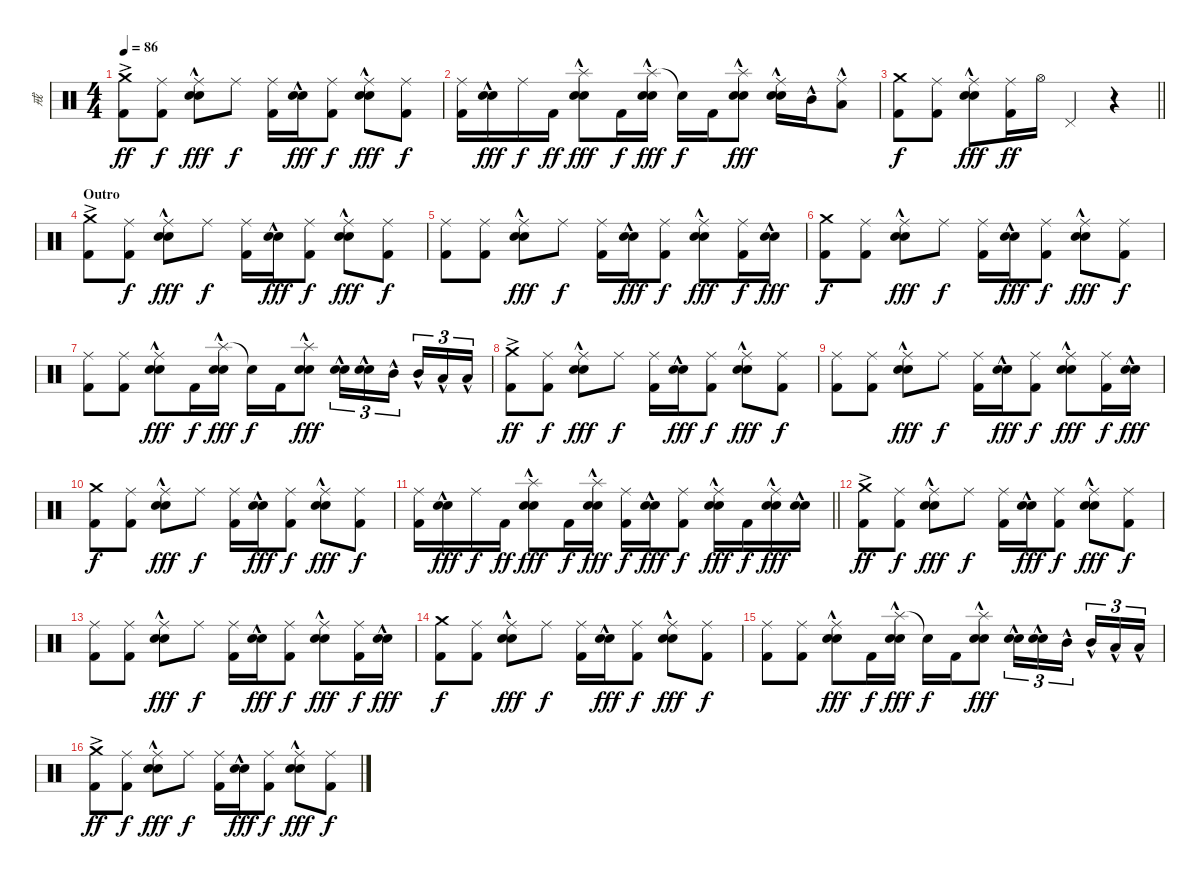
\track ("戒" "戒") {instrument percussion}
\staff {score}
\articulation defaults
\ts (4 4)
\tempo 86
\clef neutral
\ks c
("Crash medium (hit)"{ac} "Kick (hit) 2").8{dy ff} ("Ride (middle)" "Kick (hit) 2").8{dy f} ("Ride (middle)" "Electric Snare (hit)"{hac} "Snare (hit) 2"{hac}).8{dy fff} "Ride (middle)".8{dy f} ("Ride (middle)" "Kick (hit) 2").16 ("Electric Snare (hit)"{hac} "Snare (hit) 2"{hac}).16{dy fff} ("Ride (middle)" "Kick (hit) 2").8{dy f} ("Ride (middle)" "Electric Snare (hit)"{hac} "Snare (hit) 2"{hac}).8{dy fff} ("Ride (middle)" "Kick (hit) 2").8{dy f} |
("Ride (middle)" "Kick (hit) 2").16 ("Electric Snare (hit)"{hac} "Snare (hit) 2"{hac}).16{dy fff} "Ride (middle)".16{dy f} "Kick (hit) 2".16{dy ff} ("Splash (hit)"{hac} "Electric Snare (hit)"{hac} "Snare (hit) 2"{hac}).8{dy fff} "Kick (hit) 2".16{dy f} ("Splash (hit)"{hac} "Electric Snare (hit)"{hac} "Snare (hit) 2"{hac}).16{dy fff} "Snare (hit)"{t}.16{dy f} "Kick (hit) 2".16 ("Splash (hit)"{hac} "Electric Snare (hit)"{hac} "Snare (hit) 2"{hac}).8{dy fff} ("Ride (middle)" "Electric Snare (hit)"{hac} "Snare (hit) 2"{hac}).16 "Mid Tom (hit)"{hac}.16 ("Ride (middle)" "Low Tom (hit)"{hac}).8 |
\barLineRight lightlight
("Crash medium (hit)" "Kick (hit) 2").8{dy f} ("Ride (middle)" "Kick (hit) 2").8 ("Ride (middle)" "Electric Snare (hit)"{hac} "Snare (hit) 2"{hac}).8{dy fff} ("Ride (middle)" "Kick (hit) 2").16{dy ff} "Hi-Hat (open)".16 "Pedal Hi-Hat (hit)".4 r.4 |
\section ("" "Outro")
("Crash medium (hit)"{ac} "Kick (hit) 2").8 ("Ride (middle)" "Kick (hit) 2").8{dy f} ("Ride (middle)" "Electric Snare (hit)"{hac} "Snare (hit) 2"{hac}).8{dy fff} "Ride (middle)".8{dy f} ("Ride (middle)" "Kick (hit) 2").16 ("Electric Snare (hit)"{hac} "Snare (hit) 2"{hac}).16{dy fff} ("Ride (middle)" "Kick (hit) 2").8{dy f} ("Ride (middle)" "Electric Snare (hit)"{hac} "Snare (hit) 2"{hac}).8{dy fff} ("Ride (middle)" "Kick (hit) 2").8{dy f} |
("Ride (middle)" "Kick (hit) 2").8 ("Ride (middle)" "Kick (hit) 2").8 ("Ride (middle)" "Electric Snare (hit)"{hac} "Snare (hit) 2"{hac}).8{dy fff} "Ride (middle)".8{dy f} ("Ride (middle)" "Kick (hit) 2").16 ("Electric Snare (hit)"{hac} "Snare (hit) 2"{hac}).16{dy fff} ("Ride (middle)" "Kick (hit) 2").8{dy f} ("Ride (middle)" "Electric Snare (hit)"{hac} "Snare (hit) 2"{hac}).8{dy fff} ("Ride (middle)" "Kick (hit) 2").16{dy f} ("Electric Snare (hit)"{hac} "Snare (hit) 2"{hac}).16{dy fff} |
("Crash medium (hit)" "Kick (hit) 2").8{dy f} ("Ride (middle)" "Kick (hit) 2").8 ("Ride (middle)" "Electric Snare (hit)"{hac} "Snare (hit) 2"{hac}).8{dy fff} "Ride (middle)".8{dy f} ("Ride (middle)" "Kick (hit) 2").16 ("Electric Snare (hit)"{hac} "Snare (hit) 2"{hac}).16{dy fff} ("Ride (middle)" "Kick (hit) 2").8{dy f} ("Ride (middle)" "Electric Snare (hit)"{hac} "Snare (hit) 2"{hac}).8{dy fff} ("Ride (middle)" "Kick (hit) 2").8{dy f} |
("Ride (middle)" "Kick (hit) 2").8 ("Ride (middle)" "Kick (hit) 2").8 ("Ride (middle)" "Electric Snare (hit)"{hac} "Snare (hit) 2"{hac}).8{dy fff} "Kick (hit) 2".16{dy f} ("Splash (hit)"{hac} "Electric Snare (hit)"{hac} "Snare (hit) 2"{hac}).16{dy fff} "Snare (hit)"{t}.16{dy f} "Kick (hit) 2".16 ("Splash (hit)"{hac} "Electric Snare (hit)"{hac} "Snare (hit) 2"{hac}).8{dy fff} ("Electric Snare (hit)"{hac} "Snare (hit) 2").16{tu (3 2)} ("Electric Snare (hit)"{hac} "Snare (hit) 2").16{tu (3 2)} "Mid Tom (hit)"{hac}.16{tu (3 2) beam splitsecondary} "Mid Tom (hit)"{hac}.16{tu (3 2)} "Low Tom (hit)"{hac}.16{tu (3 2)} "Low Tom (hit)"{hac}.16{tu (3 2)} |
("Crash medium (hit)"{ac} "Kick (hit) 2").8{dy ff} ("Ride (middle)" "Kick (hit) 2").8{dy f} ("Ride (middle)" "Electric Snare (hit)"{hac} "Snare (hit) 2"{hac}).8{dy fff} "Ride (middle)".8{dy f} ("Ride (middle)" "Kick (hit) 2").16 ("Electric Snare (hit)"{hac} "Snare (hit) 2"{hac}).16{dy fff} ("Ride (middle)" "Kick (hit) 2").8{dy f} ("Ride (middle)" "Electric Snare (hit)"{hac} "Snare (hit) 2"{hac}).8{dy fff} ("Ride (middle)" "Kick (hit) 2").8{dy f} |
("Ride (middle)" "Kick (hit) 2").8 ("Ride (middle)" "Kick (hit) 2").8 ("Ride (middle)" "Electric Snare (hit)"{hac} "Snare (hit) 2"{hac}).8{dy fff} "Ride (middle)".8{dy f} ("Ride (middle)" "Kick (hit) 2").16 ("Electric Snare (hit)"{hac} "Snare (hit) 2"{hac}).16{dy fff} ("Ride (middle)" "Kick (hit) 2").8{dy f} ("Ride (middle)" "Electric Snare (hit)"{hac} "Snare (hit) 2"{hac}).8{dy fff} ("Ride (middle)" "Kick (hit) 2").16{dy f} ("Electric Snare (hit)"{hac} "Snare (hit) 2"{hac}).16{dy fff} |
("Crash medium (hit)" "Kick (hit) 2").8{dy f} ("Ride (middle)" "Kick (hit) 2").8 ("Ride (middle)" "Electric Snare (hit)"{hac} "Snare (hit) 2"{hac}).8{dy fff} "Ride (middle)".8{dy f} ("Ride (middle)" "Kick (hit) 2").16 ("Electric Snare (hit)"{hac} "Snare (hit) 2"{hac}).16{dy fff} ("Ride (middle)" "Kick (hit) 2").8{dy f} ("Ride (middle)" "Electric Snare (hit)"{hac} "Snare (hit) 2"{hac}).8{dy fff} ("Ride (middle)" "Kick (hit) 2").8{dy f} |
\barLineRight lightlight
("Ride (middle)" "Kick (hit) 2").16 ("Electric Snare (hit)"{hac} "Snare (hit) 2"{hac}).16{dy fff} "Ride (middle)".16{dy f} "Kick (hit) 2".16{dy ff} ("Splash (hit)"{hac} "Electric Snare (hit)"{hac} "Snare (hit) 2"{hac}).8{dy fff} "Kick (hit) 2".16{dy f} ("Splash (hit)"{hac} "Electric Snare (hit)"{hac} "Snare (hit) 2"{hac}).16{dy fff} ("Ride (middle)" "Kick (hit) 2").16{dy f} ("Electric Snare (hit)"{hac} "Snare (hit) 2"{hac}).16{dy fff} ("Ride (middle)" "Kick (hit) 2").8{dy f} ("Ride (middle)" "Electric Snare (hit)"{hac} "Snare (hit) 2"{hac}).16{dy fff} "Kick (hit) 2".16{dy f} ("Ride (middle)" "Electric Snare (hit)"{hac} "Snare (hit) 2"{hac}).16{dy fff} ("Electric Snare (hit)"{hac} "Snare (hit) 2"{hac}).16 |
\section ("" "")
("Crash medium (hit)"{ac} "Kick (hit) 2").8{dy ff} ("Ride (middle)" "Kick (hit) 2").8{dy f} ("Ride (middle)" "Electric Snare (hit)"{hac} "Snare (hit) 2"{hac}).8{dy fff} "Ride (middle)".8{dy f} ("Ride (middle)" "Kick (hit) 2").16 ("Electric Snare (hit)"{hac} "Snare (hit) 2"{hac}).16{dy fff} ("Ride (middle)" "Kick (hit) 2").8{dy f} ("Ride (middle)" "Electric Snare (hit)"{hac} "Snare (hit) 2"{hac}).8{dy fff} ("Ride (middle)" "Kick (hit) 2").8{dy f} |
("Ride (middle)" "Kick (hit) 2").8 ("Ride (middle)" "Kick (hit) 2").8 ("Ride (middle)" "Electric Snare (hit)"{hac} "Snare (hit) 2"{hac}).8{dy fff} "Ride (middle)".8{dy f} ("Ride (middle)" "Kick (hit) 2").16 ("Electric Snare (hit)"{hac} "Snare (hit) 2"{hac}).16{dy fff} ("Ride (middle)" "Kick (hit) 2").8{dy f} ("Ride (middle)" "Electric Snare (hit)"{hac} "Snare (hit) 2"{hac}).8{dy fff} ("Ride (middle)" "Kick (hit) 2").16{dy f} ("Electric Snare (hit)"{hac} "Snare (hit) 2"{hac}).16{dy fff} |
("Crash medium (hit)" "Kick (hit) 2").8{dy f} ("Ride (middle)" "Kick (hit) 2").8 ("Ride (middle)" "Electric Snare (hit)"{hac} "Snare (hit) 2"{hac}).8{dy fff} "Ride (middle)".8{dy f} ("Ride (middle)" "Kick (hit) 2").16 ("Electric Snare (hit)"{hac} "Snare (hit) 2"{hac}).16{dy fff} ("Ride (middle)" "Kick (hit) 2").8{dy f} ("Ride (middle)" "Electric Snare (hit)"{hac} "Snare (hit) 2"{hac}).8{dy fff} ("Ride (middle)" "Kick (hit) 2").8{dy f} |
("Ride (middle)" "Kick (hit) 2").8 ("Ride (middle)" "Kick (hit) 2").8 ("Ride (middle)" "Electric Snare (hit)"{hac} "Snare (hit) 2"{hac}).8{dy fff} "Kick (hit) 2".16{dy f} ("Splash (hit)"{hac} "Electric Snare (hit)"{hac} "Snare (hit) 2"{hac}).16{dy fff} "Snare (hit)"{t}.16{dy f} "Kick (hit) 2".16 ("Splash (hit)"{hac} "Electric Snare (hit)"{hac} "Snare (hit) 2"{hac}).8{dy fff} ("Electric Snare (hit)"{hac} "Snare (hit) 2").16{tu (3 2)} ("Electric Snare (hit)"{hac} "Snare (hit) 2").16{tu (3 2)} "Mid Tom (hit)"{hac}.16{tu (3 2) beam splitsecondary} "Mid Tom (hit)"{hac}.16{tu (3 2)} "Low Tom (hit)"{hac}.16{tu (3 2)} "Low Tom (hit)"{hac}.16{tu (3 2)} |
("Crash medium (hit)"{ac} "Kick (hit) 2").8{dy ff} ("Ride (middle)" "Kick (hit) 2").8{dy f} ("Ride (middle)" "Electric Snare (hit)"{hac} "Snare (hit) 2"{hac}).8{dy fff} "Ride (middle)".8{dy f} ("Ride (middle)" "Kick (hit) 2").16 ("Electric Snare (hit)"{hac} "Snare (hit) 2"{hac}).16{dy fff} ("Ride (middle)" "Kick (hit) 2").8{dy f} ("Ride (middle)" "Electric Snare (hit)"{hac} "Snare (hit) 2"{hac}).8{dy fff} ("Ride (middle)" "Kick (hit) 2").8{dy f}
